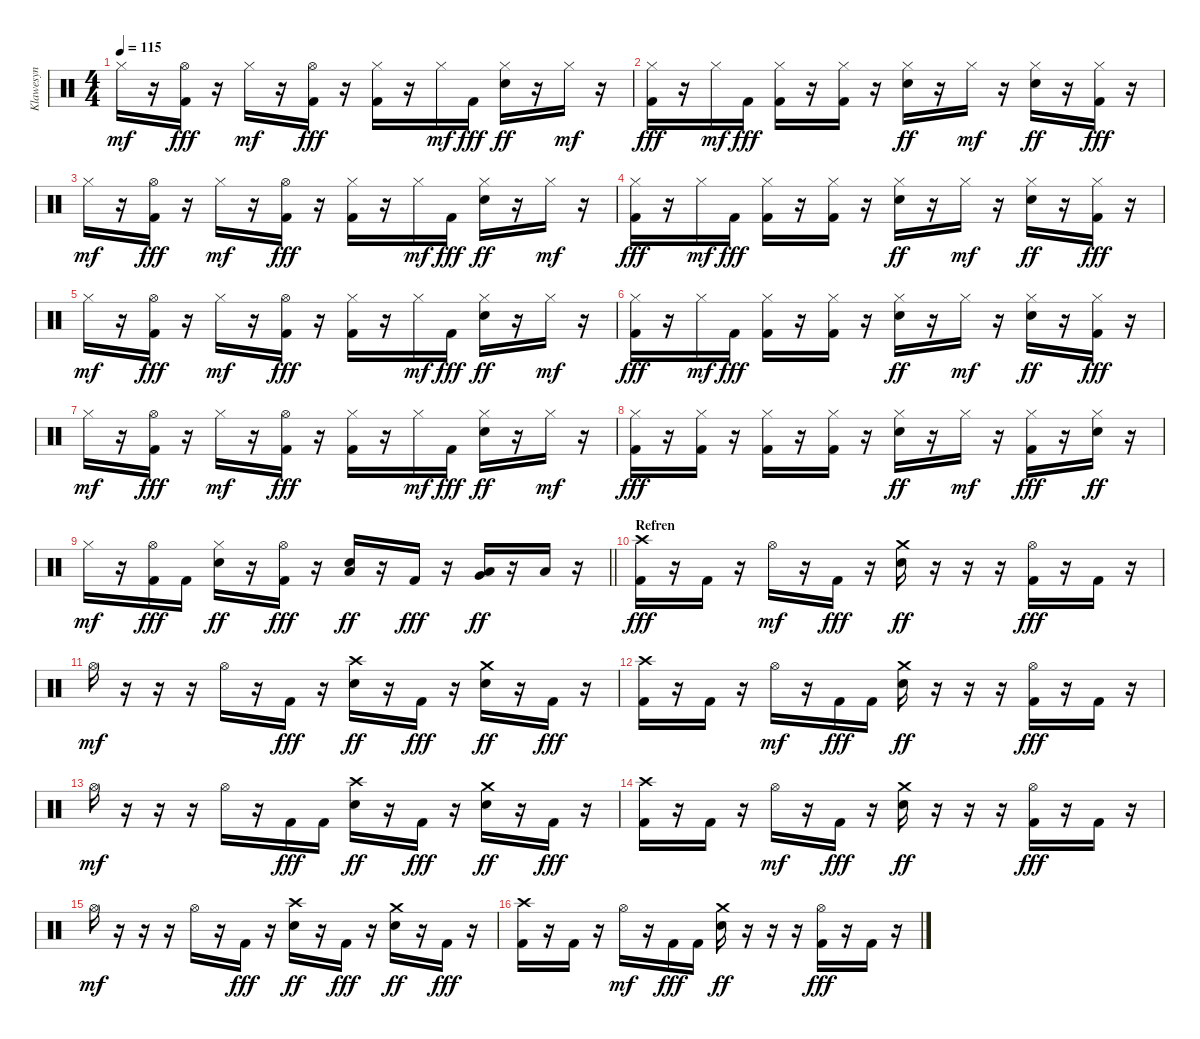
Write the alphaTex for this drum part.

\track ("Klawesyn" "Klawesyn") {instrument percussion}
\staff {score}
\articulation defaults
\ts (4 4)
\tempo 115
\clef neutral
\ks c "Hi-Hat (closed)".16{dy mf}
r.16 ("Hi-Hat (open)" "Kick (hit) 2").16{dy fff} r.16 "Hi-Hat (closed)".16{dy mf} r.16 ("Hi-Hat (open)" "Kick (hit) 2").16{dy fff} r.16 ("Hi-Hat (closed)" "Kick (hit) 2").16 r.16 "Hi-Hat (closed)".16{dy mf} "Kick (hit) 2".16{dy fff} ("Hi-Hat (closed)" "Electric Snare (hit)").16{dy ff} r.16 "Hi-Hat (closed)".16{dy mf} r.16 |
("Hi-Hat (closed)" "Kick (hit) 2").16{dy fff} r.16 "Hi-Hat (closed)".16{dy mf} "Kick (hit) 2".16{dy fff} ("Hi-Hat (closed)" "Kick (hit) 2").16 r.16 ("Hi-Hat (closed)" "Kick (hit) 2").16 r.16 ("Hi-Hat (closed)" "Electric Snare (hit)").16{dy ff} r.16 "Hi-Hat (closed)".16{dy mf} r.16 ("Hi-Hat (closed)" "Electric Snare (hit)").16{dy ff} r.16 ("Hi-Hat (closed)" "Kick (hit) 2").16{dy fff} r.16 |
"Hi-Hat (closed)".16{dy mf} r.16 ("Hi-Hat (open)" "Kick (hit) 2").16{dy fff} r.16 "Hi-Hat (closed)".16{dy mf} r.16 ("Hi-Hat (open)" "Kick (hit) 2").16{dy fff} r.16 ("Hi-Hat (closed)" "Kick (hit) 2").16 r.16 "Hi-Hat (closed)".16{dy mf} "Kick (hit) 2".16{dy fff} ("Hi-Hat (closed)" "Electric Snare (hit)").16{dy ff} r.16 "Hi-Hat (closed)".16{dy mf} r.16 |
("Hi-Hat (closed)" "Kick (hit) 2").16{dy fff} r.16 "Hi-Hat (closed)".16{dy mf} "Kick (hit) 2".16{dy fff} ("Hi-Hat (closed)" "Kick (hit) 2").16 r.16 ("Hi-Hat (closed)" "Kick (hit) 2").16 r.16 ("Hi-Hat (closed)" "Electric Snare (hit)").16{dy ff} r.16 "Hi-Hat (closed)".16{dy mf} r.16 ("Hi-Hat (closed)" "Electric Snare (hit)").16{dy ff} r.16 ("Hi-Hat (closed)" "Kick (hit) 2").16{dy fff} r.16 |
"Hi-Hat (closed)".16{dy mf} r.16 ("Hi-Hat (open)" "Kick (hit) 2").16{dy fff} r.16 "Hi-Hat (closed)".16{dy mf} r.16 ("Hi-Hat (open)" "Kick (hit) 2").16{dy fff} r.16 ("Hi-Hat (closed)" "Kick (hit) 2").16 r.16 "Hi-Hat (closed)".16{dy mf} "Kick (hit) 2".16{dy fff} ("Hi-Hat (closed)" "Electric Snare (hit)").16{dy ff} r.16 "Hi-Hat (closed)".16{dy mf} r.16 |
("Hi-Hat (closed)" "Kick (hit) 2").16{dy fff} r.16 "Hi-Hat (closed)".16{dy mf} "Kick (hit) 2".16{dy fff} ("Hi-Hat (closed)" "Kick (hit) 2").16 r.16 ("Hi-Hat (closed)" "Kick (hit) 2").16 r.16 ("Hi-Hat (closed)" "Electric Snare (hit)").16{dy ff} r.16 "Hi-Hat (closed)".16{dy mf} r.16 ("Hi-Hat (closed)" "Electric Snare (hit)").16{dy ff} r.16 ("Hi-Hat (closed)" "Kick (hit) 2").16{dy fff} r.16 |
"Hi-Hat (closed)".16{dy mf} r.16 ("Hi-Hat (open)" "Kick (hit) 2").16{dy fff} r.16 "Hi-Hat (closed)".16{dy mf} r.16 ("Hi-Hat (open)" "Kick (hit) 2").16{dy fff} r.16 ("Hi-Hat (closed)" "Kick (hit) 2").16 r.16 "Hi-Hat (closed)".16{dy mf} "Kick (hit) 2".16{dy fff} ("Hi-Hat (closed)" "Electric Snare (hit)").16{dy ff} r.16 "Hi-Hat (closed)".16{dy mf} r.16 |
("Hi-Hat (closed)" "Kick (hit) 2").16{dy fff} r.16 ("Hi-Hat (closed)" "Kick (hit) 2").16 r.16 ("Hi-Hat (closed)" "Kick (hit) 2").16 r.16 ("Hi-Hat (closed)" "Kick (hit) 2").16 r.16 ("Hi-Hat (closed)" "Electric Snare (hit)").16{dy ff} r.16 "Hi-Hat (closed)".16{dy mf} r.16 ("Hi-Hat (closed)" "Kick (hit) 2").16{dy fff} r.16 ("Hi-Hat (closed)" "Electric Snare (hit)").16{dy ff} r.16 |
\barLineRight lightlight "Hi-Hat (closed)".16{dy mf}
r.16 ("Hi-Hat (open)" "Kick (hit) 2").16{dy fff} "Kick (hit) 2".16 ("Hi-Hat (closed)" "Electric Snare (hit)").16{dy ff} r.16 ("Hi-Hat (open)" "Kick (hit) 2").16{dy fff} r.16 ("Low Tom (hit)" "Electric Snare (hit)").16{dy ff} r.16 "Kick (hit) 2".16{dy fff} r.16 ("Very Low Tom (hit)" "Low Tom (hit)").16{dy ff} r.16 "Low Floor Tom (hit)".16 r.16 |
\section ("" "Refren")
("Crash high (hit)" "Kick (hit) 2").16{dy fff} r.16 "Kick (hit) 2".16 r.16 "Hi-Hat (open)".16{dy mf} r.16 "Kick (hit) 2".16{dy fff} r.16 ("Crash medium (hit)" "Electric Snare (hit)").16{dy ff} r.16 r.16 r.16 ("Hi-Hat (open)" "Kick (hit) 2").16{dy fff} r.16 "Kick (hit) 2".16 r.16 |
"Hi-Hat (open)".16{dy mf} r.16 r.16 r.16 "Hi-Hat (open)".16 r.16 "Kick (hit) 2".16{dy fff} r.16 ("Crash high (hit)" "Electric Snare (hit)").16{dy ff} r.16 "Kick (hit) 2".16{dy fff} r.16 ("Crash medium (hit)" "Electric Snare (hit)").16{dy ff} r.16 "Kick (hit) 2".16{dy fff} r.16 |
("Crash high (hit)" "Kick (hit) 2").16 r.16 "Kick (hit) 2".16 r.16 "Hi-Hat (open)".16{dy mf} r.16 "Kick (hit) 2".16{dy fff} "Kick (hit) 2".16 ("Crash medium (hit)" "Electric Snare (hit)").16{dy ff} r.16 r.16 r.16 ("Hi-Hat (open)" "Kick (hit) 2").16{dy fff} r.16 "Kick (hit) 2".16 r.16 |
"Hi-Hat (open)".16{dy mf} r.16 r.16 r.16 "Hi-Hat (open)".16 r.16 "Kick (hit) 2".16{dy fff} "Kick (hit) 2".16 ("Crash high (hit)" "Electric Snare (hit)").16{dy ff} r.16 "Kick (hit) 2".16{dy fff} r.16 ("Crash medium (hit)" "Electric Snare (hit)").16{dy ff} r.16 "Kick (hit) 2".16{dy fff} r.16 |
("Crash high (hit)" "Kick (hit) 2").16 r.16 "Kick (hit) 2".16 r.16 "Hi-Hat (open)".16{dy mf} r.16 "Kick (hit) 2".16{dy fff} r.16 ("Crash medium (hit)" "Electric Snare (hit)").16{dy ff} r.16 r.16 r.16 ("Hi-Hat (open)" "Kick (hit) 2").16{dy fff} r.16 "Kick (hit) 2".16 r.16 |
"Hi-Hat (open)".16{dy mf} r.16 r.16 r.16 "Hi-Hat (open)".16 r.16 "Kick (hit) 2".16{dy fff} r.16 ("Crash high (hit)" "Electric Snare (hit)").16{dy ff} r.16 "Kick (hit) 2".16{dy fff} r.16 ("Crash medium (hit)" "Electric Snare (hit)").16{dy ff} r.16 "Kick (hit) 2".16{dy fff} r.16 |
("Crash high (hit)" "Kick (hit) 2").16 r.16 "Kick (hit) 2".16 r.16 "Hi-Hat (open)".16{dy mf} r.16 "Kick (hit) 2".16{dy fff} "Kick (hit) 2".16 ("Crash medium (hit)" "Electric Snare (hit)").16{dy ff} r.16 r.16 r.16 ("Hi-Hat (open)" "Kick (hit) 2").16{dy fff} r.16 "Kick (hit) 2".16 r.16
